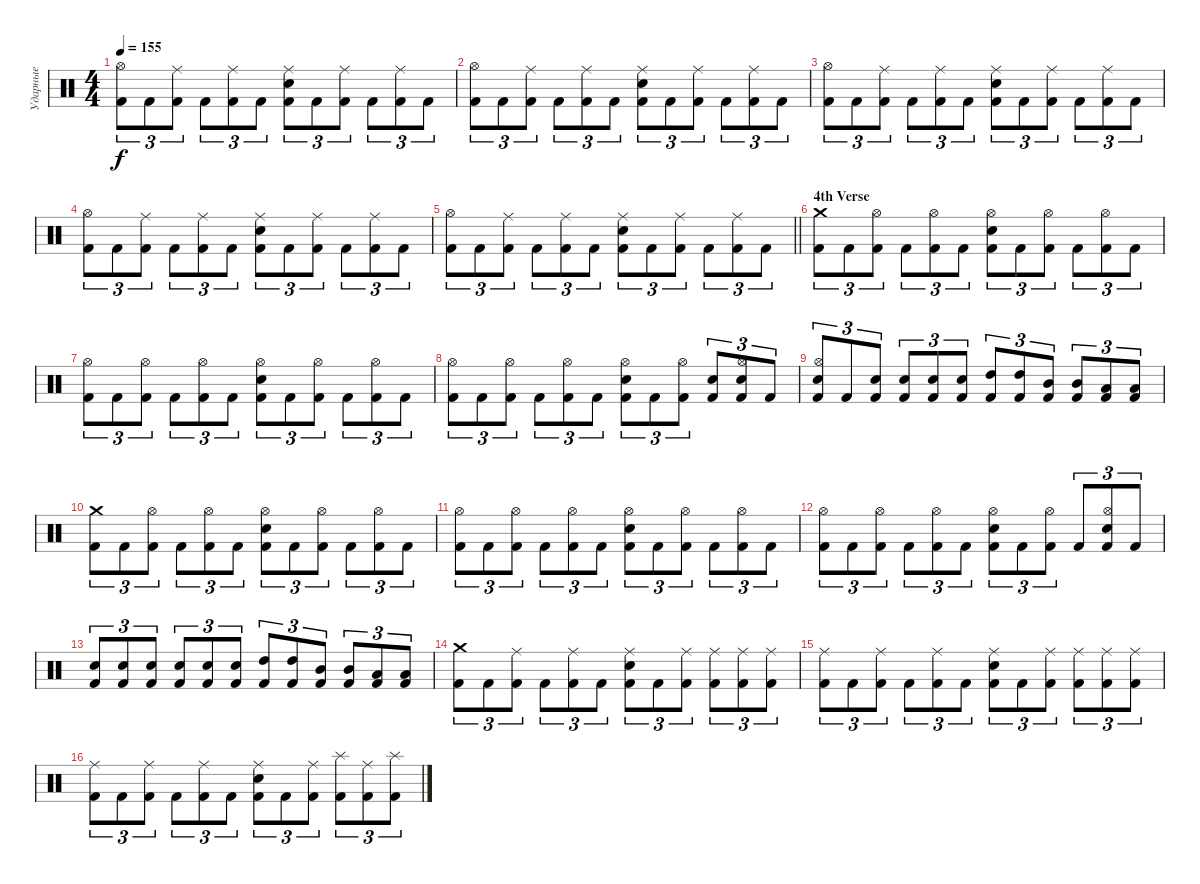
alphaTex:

\track ("Ударные" "Ударные") {instrument percussion}
\staff {score}
\articulation defaults
\ts (4 4)
\tempo 155
\clef neutral
\ks c
("Kick (hit) 2" "Hi-Hat (open)").8{tu (3 2) dy f} "Kick (hit) 2".8{tu (3 2)} ("Kick (hit) 2" "Ride (middle)").8{tu (3 2)} "Kick (hit) 2".8{tu (3 2)} ("Kick (hit) 2" "Ride (middle)").8{tu (3 2)} "Kick (hit) 2".8{tu (3 2)} ("Kick (hit) 2" "Electric Snare (hit)" "Ride (middle)").8{tu (3 2)} "Kick (hit) 2".8{tu (3 2)} ("Kick (hit) 2" "Ride (middle)").8{tu (3 2)} "Kick (hit) 2".8{tu (3 2)} ("Kick (hit) 2" "Ride (middle)").8{tu (3 2)} "Kick (hit) 2".8{tu (3 2)} |
("Kick (hit) 2" "Hi-Hat (open)").8{tu (3 2)} "Kick (hit) 2".8{tu (3 2)} ("Kick (hit) 2" "Ride (middle)").8{tu (3 2)} "Kick (hit) 2".8{tu (3 2)} ("Kick (hit) 2" "Ride (middle)").8{tu (3 2)} "Kick (hit) 2".8{tu (3 2)} ("Kick (hit) 2" "Electric Snare (hit)" "Ride (middle)").8{tu (3 2)} "Kick (hit) 2".8{tu (3 2)} ("Kick (hit) 2" "Ride (middle)").8{tu (3 2)} "Kick (hit) 2".8{tu (3 2)} ("Kick (hit) 2" "Ride (middle)").8{tu (3 2)} "Kick (hit) 2".8{tu (3 2)} |
("Kick (hit) 2" "Hi-Hat (open)").8{tu (3 2)} "Kick (hit) 2".8{tu (3 2)} ("Kick (hit) 2" "Ride (middle)").8{tu (3 2)} "Kick (hit) 2".8{tu (3 2)} ("Kick (hit) 2" "Ride (middle)").8{tu (3 2)} "Kick (hit) 2".8{tu (3 2)} ("Kick (hit) 2" "Electric Snare (hit)" "Ride (middle)").8{tu (3 2)} "Kick (hit) 2".8{tu (3 2)} ("Kick (hit) 2" "Ride (middle)").8{tu (3 2)} "Kick (hit) 2".8{tu (3 2)} ("Kick (hit) 2" "Ride (middle)").8{tu (3 2)} "Kick (hit) 2".8{tu (3 2)} |
("Kick (hit) 2" "Hi-Hat (open)").8{tu (3 2)} "Kick (hit) 2".8{tu (3 2)} ("Kick (hit) 2" "Ride (middle)").8{tu (3 2)} "Kick (hit) 2".8{tu (3 2)} ("Kick (hit) 2" "Ride (middle)").8{tu (3 2)} "Kick (hit) 2".8{tu (3 2)} ("Kick (hit) 2" "Electric Snare (hit)" "Ride (middle)").8{tu (3 2)} "Kick (hit) 2".8{tu (3 2)} ("Kick (hit) 2" "Ride (middle)").8{tu (3 2)} "Kick (hit) 2".8{tu (3 2)} ("Kick (hit) 2" "Ride (middle)").8{tu (3 2)} "Kick (hit) 2".8{tu (3 2)} |
\barLineRight lightlight
("Kick (hit) 2" "Hi-Hat (open)").8{tu (3 2)} "Kick (hit) 2".8{tu (3 2)} ("Kick (hit) 2" "Ride (middle)").8{tu (3 2)} "Kick (hit) 2".8{tu (3 2)} ("Kick (hit) 2" "Ride (middle)").8{tu (3 2)} "Kick (hit) 2".8{tu (3 2)} ("Kick (hit) 2" "Electric Snare (hit)" "Ride (middle)").8{tu (3 2)} "Kick (hit) 2".8{tu (3 2)} ("Kick (hit) 2" "Ride (middle)").8{tu (3 2)} "Kick (hit) 2".8{tu (3 2)} ("Kick (hit) 2" "Ride (middle)").8{tu (3 2)} "Kick (hit) 2".8{tu (3 2)} |
\section ("" "4th Verse")
("Kick (hit) 2" "Crash medium (hit)").8{tu (3 2)} "Kick (hit) 2".8{tu (3 2)} ("Kick (hit) 2" "Hi-Hat (open)").8{tu (3 2)} "Kick (hit) 2".8{tu (3 2)} ("Kick (hit) 2" "Hi-Hat (open)").8{tu (3 2)} "Kick (hit) 2".8{tu (3 2)} ("Kick (hit) 2" "Electric Snare (hit)" "Hi-Hat (open)").8{tu (3 2)} "Kick (hit) 2".8{tu (3 2)} ("Kick (hit) 2" "Hi-Hat (open)").8{tu (3 2)} "Kick (hit) 2".8{tu (3 2)} ("Kick (hit) 2" "Hi-Hat (open)").8{tu (3 2)} "Kick (hit) 2".8{tu (3 2)} |
("Kick (hit) 2" "Hi-Hat (open)").8{tu (3 2)} "Kick (hit) 2".8{tu (3 2)} ("Kick (hit) 2" "Hi-Hat (open)").8{tu (3 2)} "Kick (hit) 2".8{tu (3 2)} ("Kick (hit) 2" "Hi-Hat (open)").8{tu (3 2)} "Kick (hit) 2".8{tu (3 2)} ("Kick (hit) 2" "Electric Snare (hit)" "Hi-Hat (open)").8{tu (3 2)} "Kick (hit) 2".8{tu (3 2)} ("Kick (hit) 2" "Hi-Hat (open)").8{tu (3 2)} "Kick (hit) 2".8{tu (3 2)} ("Kick (hit) 2" "Hi-Hat (open)").8{tu (3 2)} "Kick (hit) 2".8{tu (3 2)} |
("Kick (hit) 2" "Hi-Hat (open)").8{tu (3 2)} "Kick (hit) 2".8{tu (3 2)} ("Kick (hit) 2" "Hi-Hat (open)").8{tu (3 2)} "Kick (hit) 2".8{tu (3 2)} ("Kick (hit) 2" "Hi-Hat (open)").8{tu (3 2)} "Kick (hit) 2".8{tu (3 2)} ("Kick (hit) 2" "Electric Snare (hit)" "Hi-Hat (open)").8{tu (3 2)} "Kick (hit) 2".8{tu (3 2)} ("Kick (hit) 2" "Hi-Hat (open)").8{tu (3 2)} ("Kick (hit) 2" "Electric Snare (hit)").8{tu (3 2)} ("Kick (hit) 2" "Electric Snare (hit)" "Hi-Hat (open)").8{tu (3 2)} "Kick (hit) 2".8{tu (3 2)} |
("Kick (hit) 2" "Electric Snare (hit)" "Hi-Hat (open)").8{tu (3 2)} "Kick (hit) 2".8{tu (3 2)} ("Kick (hit) 2" "Electric Snare (hit)").8{tu (3 2)} ("Kick (hit) 2" "Electric Snare (hit)").8{tu (3 2)} ("Kick (hit) 2" "Electric Snare (hit)").8{tu (3 2)} ("Kick (hit) 2" "Electric Snare (hit)").8{tu (3 2)} ("Kick (hit) 2" "High Tom (hit)").8{tu (3 2)} ("Kick (hit) 2" "High Tom (hit)").8{tu (3 2)} ("Kick (hit) 2" "Mid Tom (hit)").8{tu (3 2)} ("Kick (hit) 2" "Mid Tom (hit)").8{tu (3 2)} ("Kick (hit) 2" "Low Tom (hit)").8{tu (3 2)} ("Kick (hit) 2" "Low Tom (hit)").8{tu (3 2)} |
("Kick (hit) 2" "Crash medium (hit)").8{tu (3 2)} "Kick (hit) 2".8{tu (3 2)} ("Kick (hit) 2" "Hi-Hat (open)").8{tu (3 2)} "Kick (hit) 2".8{tu (3 2)} ("Kick (hit) 2" "Hi-Hat (open)").8{tu (3 2)} "Kick (hit) 2".8{tu (3 2)} ("Kick (hit) 2" "Electric Snare (hit)" "Hi-Hat (open)").8{tu (3 2)} "Kick (hit) 2".8{tu (3 2)} ("Kick (hit) 2" "Hi-Hat (open)").8{tu (3 2)} "Kick (hit) 2".8{tu (3 2)} ("Kick (hit) 2" "Hi-Hat (open)").8{tu (3 2)} "Kick (hit) 2".8{tu (3 2)} |
("Kick (hit) 2" "Hi-Hat (open)").8{tu (3 2)} "Kick (hit) 2".8{tu (3 2)} ("Kick (hit) 2" "Hi-Hat (open)").8{tu (3 2)} "Kick (hit) 2".8{tu (3 2)} ("Kick (hit) 2" "Hi-Hat (open)").8{tu (3 2)} "Kick (hit) 2".8{tu (3 2)} ("Kick (hit) 2" "Electric Snare (hit)" "Hi-Hat (open)").8{tu (3 2)} "Kick (hit) 2".8{tu (3 2)} ("Kick (hit) 2" "Hi-Hat (open)").8{tu (3 2)} "Kick (hit) 2".8{tu (3 2)} ("Kick (hit) 2" "Hi-Hat (open)").8{tu (3 2)} "Kick (hit) 2".8{tu (3 2)} |
("Kick (hit) 2" "Hi-Hat (open)").8{tu (3 2)} "Kick (hit) 2".8{tu (3 2)} ("Kick (hit) 2" "Hi-Hat (open)").8{tu (3 2)} "Kick (hit) 2".8{tu (3 2)} ("Kick (hit) 2" "Hi-Hat (open)").8{tu (3 2)} "Kick (hit) 2".8{tu (3 2)} ("Kick (hit) 2" "Electric Snare (hit)" "Hi-Hat (open)").8{tu (3 2)} "Kick (hit) 2".8{tu (3 2)} ("Kick (hit) 2" "Hi-Hat (open)").8{tu (3 2)} "Kick (hit) 2".8{tu (3 2)} ("Kick (hit) 2" "Electric Snare (hit)" "Hi-Hat (open)").8{tu (3 2)} "Kick (hit) 2".8{tu (3 2)} |
("Kick (hit) 2" "Electric Snare (hit)").8{tu (3 2)} ("Kick (hit) 2" "Electric Snare (hit)").8{tu (3 2)} ("Kick (hit) 2" "Electric Snare (hit)").8{tu (3 2)} ("Kick (hit) 2" "Electric Snare (hit)").8{tu (3 2)} ("Kick (hit) 2" "Electric Snare (hit)").8{tu (3 2)} ("Kick (hit) 2" "Electric Snare (hit)").8{tu (3 2)} ("Kick (hit) 2" "High Tom (hit)").8{tu (3 2)} ("Kick (hit) 2" "High Tom (hit)").8{tu (3 2)} ("Kick (hit) 2" "Mid Tom (hit)").8{tu (3 2)} ("Kick (hit) 2" "Mid Tom (hit)").8{tu (3 2)} ("Kick (hit) 2" "Low Tom (hit)").8{tu (3 2)} ("Kick (hit) 2" "Low Tom (hit)").8{tu (3 2)} |
("Kick (hit) 2" "Crash medium (hit)").8{tu (3 2)} "Kick (hit) 2".8{tu (3 2)} ("Kick (hit) 2" "Ride (middle)").8{tu (3 2)} "Kick (hit) 2".8{tu (3 2)} ("Kick (hit) 2" "Ride (middle)").8{tu (3 2)} "Kick (hit) 2".8{tu (3 2)} ("Kick (hit) 2" "Electric Snare (hit)" "Ride (middle)").8{tu (3 2)} "Kick (hit) 2".8{tu (3 2)} ("Kick (hit) 2" "Ride (middle)").8{tu (3 2)} ("Kick (hit) 2" "Ride (middle)").8{tu (3 2)} ("Kick (hit) 2" "Ride (middle)").8{tu (3 2)} ("Kick (hit) 2" "Ride (middle)").8{tu (3 2)} |
("Kick (hit) 2" "Ride (middle)").8{tu (3 2)} "Kick (hit) 2".8{tu (3 2)} ("Kick (hit) 2" "Ride (middle)").8{tu (3 2)} "Kick (hit) 2".8{tu (3 2)} ("Kick (hit) 2" "Ride (middle)").8{tu (3 2)} "Kick (hit) 2".8{tu (3 2)} ("Kick (hit) 2" "Electric Snare (hit)" "Ride (middle)").8{tu (3 2)} "Kick (hit) 2".8{tu (3 2)} ("Kick (hit) 2" "Ride (middle)").8{tu (3 2)} ("Kick (hit) 2" "Ride (middle)").8{tu (3 2)} ("Kick (hit) 2" "Ride (middle)").8{tu (3 2)} ("Kick (hit) 2" "Ride (middle)").8{tu (3 2)} |
("Kick (hit) 2" "Ride (middle)").8{tu (3 2)} "Kick (hit) 2".8{tu (3 2)} ("Kick (hit) 2" "Ride (middle)").8{tu (3 2)} "Kick (hit) 2".8{tu (3 2)} ("Kick (hit) 2" "Ride (middle)").8{tu (3 2)} "Kick (hit) 2".8{tu (3 2)} ("Kick (hit) 2" "Electric Snare (hit)" "Ride (middle)").8{tu (3 2)} "Kick (hit) 2".8{tu (3 2)} ("Kick (hit) 2" "Ride (middle)").8{tu (3 2)} ("Kick (hit) 2" "Splash (hit)").8{tu (3 2)} ("Kick (hit) 2" "Ride (middle)").8{tu (3 2)} ("Kick (hit) 2" "Splash (hit)").8{tu (3 2)}
